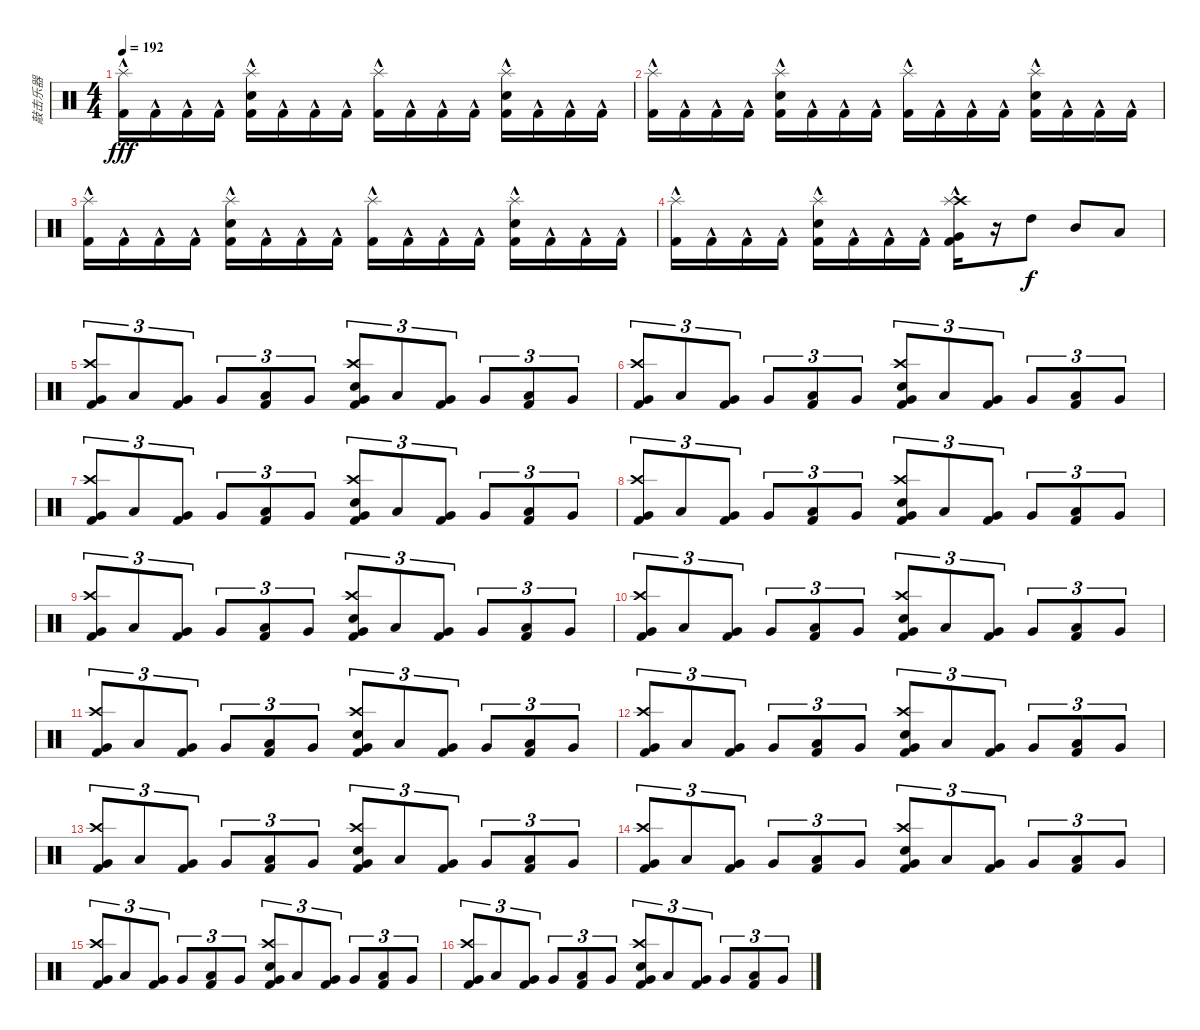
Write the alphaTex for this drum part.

\track ("敲击乐器" "敲击乐器") {instrument percussion}
\staff {score}
\articulation defaults
\ts (4 4)
\tempo 192
\clef neutral
\ks c
("Splash (hit)" "Kick (hit) 2"{hac}).16{dy fff} "Kick (hit) 2"{hac}.16 "Kick (hit) 2"{hac}.16 "Kick (hit) 2"{hac}.16 ("Splash (hit)" "Kick (hit) 2"{hac} "Electric Snare (hit)").16 "Kick (hit) 2"{hac}.16 "Kick (hit) 2"{hac}.16 "Kick (hit) 2"{hac}.16 ("Splash (hit)" "Kick (hit) 2"{hac}).16 "Kick (hit) 2"{hac}.16 "Kick (hit) 2"{hac}.16 "Kick (hit) 2"{hac}.16 ("Splash (hit)" "Kick (hit) 2"{hac} "Electric Snare (hit)").16 "Kick (hit) 2"{hac}.16 "Kick (hit) 2"{hac}.16 "Kick (hit) 2"{hac}.16 |
("Splash (hit)" "Kick (hit) 2"{hac}).16 "Kick (hit) 2"{hac}.16 "Kick (hit) 2"{hac}.16 "Kick (hit) 2"{hac}.16 ("Splash (hit)" "Kick (hit) 2"{hac} "Electric Snare (hit)").16 "Kick (hit) 2"{hac}.16 "Kick (hit) 2"{hac}.16 "Kick (hit) 2"{hac}.16 ("Splash (hit)" "Kick (hit) 2"{hac}).16 "Kick (hit) 2"{hac}.16 "Kick (hit) 2"{hac}.16 "Kick (hit) 2"{hac}.16 ("Splash (hit)" "Kick (hit) 2"{hac} "Electric Snare (hit)").16 "Kick (hit) 2"{hac}.16 "Kick (hit) 2"{hac}.16 "Kick (hit) 2"{hac}.16 |
("Splash (hit)" "Kick (hit) 2"{hac}).16 "Kick (hit) 2"{hac}.16 "Kick (hit) 2"{hac}.16 "Kick (hit) 2"{hac}.16 ("Splash (hit)" "Kick (hit) 2"{hac} "Electric Snare (hit)").16 "Kick (hit) 2"{hac}.16 "Kick (hit) 2"{hac}.16 "Kick (hit) 2"{hac}.16 ("Splash (hit)" "Kick (hit) 2"{hac}).16 "Kick (hit) 2"{hac}.16 "Kick (hit) 2"{hac}.16 "Kick (hit) 2"{hac}.16 ("Splash (hit)" "Kick (hit) 2"{hac} "Electric Snare (hit)").16 "Kick (hit) 2"{hac}.16 "Kick (hit) 2"{hac}.16 "Kick (hit) 2"{hac}.16 |
("Splash (hit)" "Kick (hit) 2"{hac}).16 "Kick (hit) 2"{hac}.16 "Kick (hit) 2"{hac}.16 "Kick (hit) 2"{hac}.16 ("Splash (hit)" "Kick (hit) 2"{hac} "Electric Snare (hit)").16 "Kick (hit) 2"{hac}.16 "Kick (hit) 2"{hac}.16 "Kick (hit) 2"{hac}.16 ("Crash high (hit)" "Splash (hit)" "Kick (hit) 2"{hac} "Very Low Tom (hit)").16 r.16 "High Tom (hit)".8{dy f} "Mid Tom (hit)".8 "Low Floor Tom (hit)".8 |
("Crash high (hit)" "Kick (hit) 2" "Very Low Tom (hit)").8{tu (3 2)} "Low Tom (hit)".8{tu (3 2)} ("Kick (hit) 2" "Very Low Tom (hit)").8{tu (3 2)} "Very Low Tom (hit)".8{tu (3 2)} ("Kick (hit) 2" "Low Tom (hit)").8{tu (3 2)} "Very Low Tom (hit)".8{tu (3 2)} ("Crash high (hit)" "Electric Snare (hit)" "Kick (hit) 2" "Very Low Tom (hit)").8{tu (3 2)} "Low Tom (hit)".8{tu (3 2)} ("Kick (hit) 2" "Very Low Tom (hit)").8{tu (3 2)} "Very Low Tom (hit)".8{tu (3 2)} ("Kick (hit) 2" "Low Tom (hit)").8{tu (3 2)} "Very Low Tom (hit)".8{tu (3 2)} |
("Crash high (hit)" "Kick (hit) 2" "Very Low Tom (hit)").8{tu (3 2)} "Low Tom (hit)".8{tu (3 2)} ("Kick (hit) 2" "Very Low Tom (hit)").8{tu (3 2)} "Very Low Tom (hit)".8{tu (3 2)} ("Kick (hit) 2" "Low Tom (hit)").8{tu (3 2)} "Very Low Tom (hit)".8{tu (3 2)} ("Crash high (hit)" "Electric Snare (hit)" "Kick (hit) 2" "Very Low Tom (hit)").8{tu (3 2)} "Low Tom (hit)".8{tu (3 2)} ("Kick (hit) 2" "Very Low Tom (hit)").8{tu (3 2)} "Very Low Tom (hit)".8{tu (3 2)} ("Kick (hit) 2" "Low Tom (hit)").8{tu (3 2)} "Very Low Tom (hit)".8{tu (3 2)} |
("Crash high (hit)" "Kick (hit) 2" "Very Low Tom (hit)").8{tu (3 2)} "Low Tom (hit)".8{tu (3 2)} ("Kick (hit) 2" "Very Low Tom (hit)").8{tu (3 2)} "Very Low Tom (hit)".8{tu (3 2)} ("Kick (hit) 2" "Low Tom (hit)").8{tu (3 2)} "Very Low Tom (hit)".8{tu (3 2)} ("Crash high (hit)" "Electric Snare (hit)" "Kick (hit) 2" "Very Low Tom (hit)").8{tu (3 2)} "Low Tom (hit)".8{tu (3 2)} ("Kick (hit) 2" "Very Low Tom (hit)").8{tu (3 2)} "Very Low Tom (hit)".8{tu (3 2)} ("Kick (hit) 2" "Low Tom (hit)").8{tu (3 2)} "Very Low Tom (hit)".8{tu (3 2)} |
("Crash high (hit)" "Kick (hit) 2" "Very Low Tom (hit)").8{tu (3 2)} "Low Tom (hit)".8{tu (3 2)} ("Kick (hit) 2" "Very Low Tom (hit)").8{tu (3 2)} "Very Low Tom (hit)".8{tu (3 2)} ("Kick (hit) 2" "Low Tom (hit)").8{tu (3 2)} "Very Low Tom (hit)".8{tu (3 2)} ("Crash high (hit)" "Electric Snare (hit)" "Kick (hit) 2" "Very Low Tom (hit)").8{tu (3 2)} "Low Tom (hit)".8{tu (3 2)} ("Kick (hit) 2" "Very Low Tom (hit)").8{tu (3 2)} "Very Low Tom (hit)".8{tu (3 2)} ("Kick (hit) 2" "Low Tom (hit)").8{tu (3 2)} "Very Low Tom (hit)".8{tu (3 2)} |
("Crash high (hit)" "Kick (hit) 2" "Very Low Tom (hit)").8{tu (3 2)} "Low Tom (hit)".8{tu (3 2)} ("Kick (hit) 2" "Very Low Tom (hit)").8{tu (3 2)} "Very Low Tom (hit)".8{tu (3 2)} ("Kick (hit) 2" "Low Tom (hit)").8{tu (3 2)} "Very Low Tom (hit)".8{tu (3 2)} ("Crash high (hit)" "Electric Snare (hit)" "Kick (hit) 2" "Very Low Tom (hit)").8{tu (3 2)} "Low Tom (hit)".8{tu (3 2)} ("Kick (hit) 2" "Very Low Tom (hit)").8{tu (3 2)} "Very Low Tom (hit)".8{tu (3 2)} ("Kick (hit) 2" "Low Tom (hit)").8{tu (3 2)} "Very Low Tom (hit)".8{tu (3 2)} |
("Crash high (hit)" "Kick (hit) 2" "Very Low Tom (hit)").8{tu (3 2)} "Low Tom (hit)".8{tu (3 2)} ("Kick (hit) 2" "Very Low Tom (hit)").8{tu (3 2)} "Very Low Tom (hit)".8{tu (3 2)} ("Kick (hit) 2" "Low Tom (hit)").8{tu (3 2)} "Very Low Tom (hit)".8{tu (3 2)} ("Crash high (hit)" "Electric Snare (hit)" "Kick (hit) 2" "Very Low Tom (hit)").8{tu (3 2)} "Low Tom (hit)".8{tu (3 2)} ("Kick (hit) 2" "Very Low Tom (hit)").8{tu (3 2)} "Very Low Tom (hit)".8{tu (3 2)} ("Kick (hit) 2" "Low Tom (hit)").8{tu (3 2)} "Very Low Tom (hit)".8{tu (3 2)} |
("Crash high (hit)" "Kick (hit) 2" "Very Low Tom (hit)").8{tu (3 2)} "Low Tom (hit)".8{tu (3 2)} ("Kick (hit) 2" "Very Low Tom (hit)").8{tu (3 2)} "Very Low Tom (hit)".8{tu (3 2)} ("Kick (hit) 2" "Low Tom (hit)").8{tu (3 2)} "Very Low Tom (hit)".8{tu (3 2)} ("Crash high (hit)" "Electric Snare (hit)" "Kick (hit) 2" "Very Low Tom (hit)").8{tu (3 2)} "Low Tom (hit)".8{tu (3 2)} ("Kick (hit) 2" "Very Low Tom (hit)").8{tu (3 2)} "Very Low Tom (hit)".8{tu (3 2)} ("Kick (hit) 2" "Low Tom (hit)").8{tu (3 2)} "Very Low Tom (hit)".8{tu (3 2)} |
("Crash high (hit)" "Kick (hit) 2" "Very Low Tom (hit)").8{tu (3 2)} "Low Tom (hit)".8{tu (3 2)} ("Kick (hit) 2" "Very Low Tom (hit)").8{tu (3 2)} "Very Low Tom (hit)".8{tu (3 2)} ("Kick (hit) 2" "Low Tom (hit)").8{tu (3 2)} "Very Low Tom (hit)".8{tu (3 2)} ("Crash high (hit)" "Electric Snare (hit)" "Kick (hit) 2" "Very Low Tom (hit)").8{tu (3 2)} "Low Tom (hit)".8{tu (3 2)} ("Kick (hit) 2" "Very Low Tom (hit)").8{tu (3 2)} "Very Low Tom (hit)".8{tu (3 2)} ("Kick (hit) 2" "Low Tom (hit)").8{tu (3 2)} "Very Low Tom (hit)".8{tu (3 2)} |
("Crash high (hit)" "Kick (hit) 2" "Very Low Tom (hit)").8{tu (3 2)} "Low Tom (hit)".8{tu (3 2)} ("Kick (hit) 2" "Very Low Tom (hit)").8{tu (3 2)} "Very Low Tom (hit)".8{tu (3 2)} ("Kick (hit) 2" "Low Tom (hit)").8{tu (3 2)} "Very Low Tom (hit)".8{tu (3 2)} ("Crash high (hit)" "Electric Snare (hit)" "Kick (hit) 2" "Very Low Tom (hit)").8{tu (3 2)} "Low Tom (hit)".8{tu (3 2)} ("Kick (hit) 2" "Very Low Tom (hit)").8{tu (3 2)} "Very Low Tom (hit)".8{tu (3 2)} ("Kick (hit) 2" "Low Tom (hit)").8{tu (3 2)} "Very Low Tom (hit)".8{tu (3 2)} |
("Crash high (hit)" "Kick (hit) 2" "Very Low Tom (hit)").8{tu (3 2)} "Low Tom (hit)".8{tu (3 2)} ("Kick (hit) 2" "Very Low Tom (hit)").8{tu (3 2)} "Very Low Tom (hit)".8{tu (3 2)} ("Kick (hit) 2" "Low Tom (hit)").8{tu (3 2)} "Very Low Tom (hit)".8{tu (3 2)} ("Crash high (hit)" "Electric Snare (hit)" "Kick (hit) 2" "Very Low Tom (hit)").8{tu (3 2)} "Low Tom (hit)".8{tu (3 2)} ("Kick (hit) 2" "Very Low Tom (hit)").8{tu (3 2)} "Very Low Tom (hit)".8{tu (3 2)} ("Kick (hit) 2" "Low Tom (hit)").8{tu (3 2)} "Very Low Tom (hit)".8{tu (3 2)} |
("Crash high (hit)" "Kick (hit) 2" "Very Low Tom (hit)").8{tu (3 2)} "Low Tom (hit)".8{tu (3 2)} ("Kick (hit) 2" "Very Low Tom (hit)").8{tu (3 2)} "Very Low Tom (hit)".8{tu (3 2)} ("Kick (hit) 2" "Low Tom (hit)").8{tu (3 2)} "Very Low Tom (hit)".8{tu (3 2)} ("Crash high (hit)" "Electric Snare (hit)" "Kick (hit) 2" "Very Low Tom (hit)").8{tu (3 2)} "Low Tom (hit)".8{tu (3 2)} ("Kick (hit) 2" "Very Low Tom (hit)").8{tu (3 2)} "Very Low Tom (hit)".8{tu (3 2)} ("Kick (hit) 2" "Low Tom (hit)").8{tu (3 2)} "Very Low Tom (hit)".8{tu (3 2)} |
("Crash high (hit)" "Kick (hit) 2" "Very Low Tom (hit)").8{tu (3 2)} "Low Tom (hit)".8{tu (3 2)} ("Kick (hit) 2" "Very Low Tom (hit)").8{tu (3 2)} "Very Low Tom (hit)".8{tu (3 2)} ("Kick (hit) 2" "Low Tom (hit)").8{tu (3 2)} "Very Low Tom (hit)".8{tu (3 2)} ("Crash high (hit)" "Electric Snare (hit)" "Kick (hit) 2" "Very Low Tom (hit)").8{tu (3 2)} "Low Tom (hit)".8{tu (3 2)} ("Kick (hit) 2" "Very Low Tom (hit)").8{tu (3 2)} "Very Low Tom (hit)".8{tu (3 2)} ("Kick (hit) 2" "Low Tom (hit)").8{tu (3 2)} "Very Low Tom (hit)".8{tu (3 2)}
